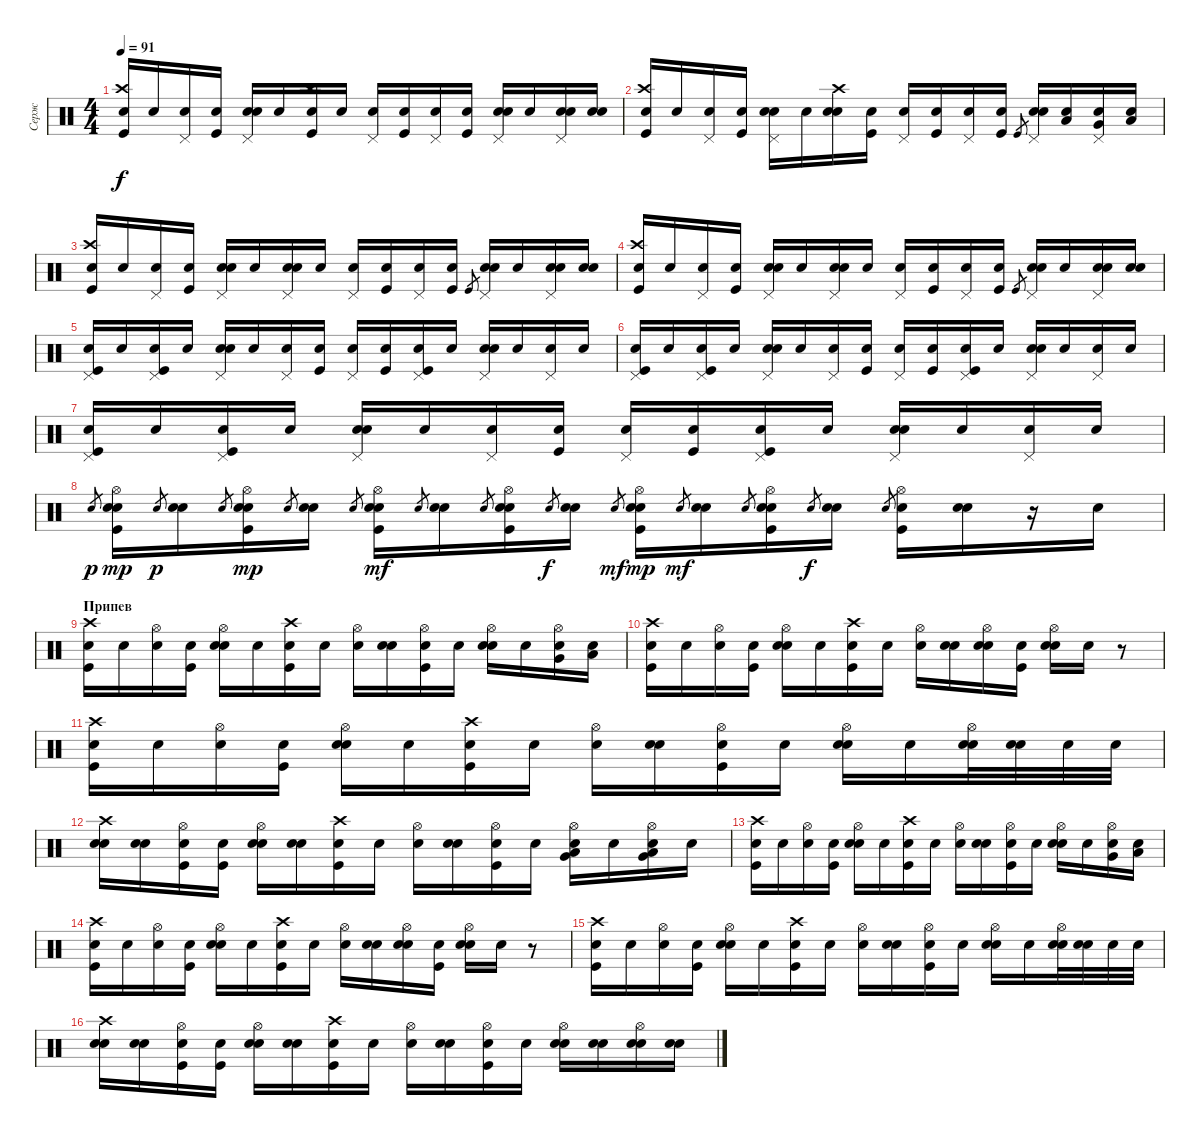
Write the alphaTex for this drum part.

\track ("Серж" "Серж") {instrument percussion}
\staff {score}
\articulation defaults
\ts (4 4)
\tempo 91
\clef neutral
\ks c
("Kick (hit)" "Crash high (hit)" "Snare (hit)"{x}).16{dy f} "Snare (hit)"{x}.16 ("Pedal Hi-Hat (hit)" "Snare (hit)"{x}).16 ("Kick (hit)" "Snare (hit)"{x}).16 ("Snare (hit) 2" "Pedal Hi-Hat (hit)" "Snare (hit)"{x}).16 "Snare (hit)"{x}.16 ("Kick (hit)" "Crash high (hit)" "Snare (hit)"{x}).16 "Snare (hit)"{x}.16 ("Pedal Hi-Hat (hit)" "Snare (hit)"{x}).16 ("Kick (hit)" "Snare (hit)"{x}).16 ("Pedal Hi-Hat (hit)" "Snare (hit)"{x}).16 ("Kick (hit)" "Snare (hit)"{x}).16 ("Snare (hit) 2" "Pedal Hi-Hat (hit)" "Snare (hit)"{x}).16 "Snare (hit)"{x}.16 ("Electric Snare (hit)" "Pedal Hi-Hat (hit)" "Snare (hit)"{x}).16 ("Electric Snare (hit)" "Snare (hit)"{x}).16 |
("Kick (hit)" "Crash high (hit)" "Snare (hit)"{x}).16 "Snare (hit)"{x}.16 ("Pedal Hi-Hat (hit)" "Snare (hit)"{x}).16 ("Kick (hit)" "Snare (hit)"{x}).16 ("Snare (hit) 2" "Pedal Hi-Hat (hit)" "Snare (hit)"{x}).16 "Snare (hit)"{x}.16 ("Snare (hit) 2" "Crash high (hit)" "Snare (hit)"{x}).16 ("Kick (hit)" "Snare (hit)"{x}).16 ("Pedal Hi-Hat (hit)" "Snare (hit)"{x}).16 ("Kick (hit)" "Snare (hit)"{x}).16 ("Pedal Hi-Hat (hit)" "Snare (hit)"{x}).16 ("Kick (hit)" "Snare (hit)"{x}).16 "Kick (hit)".8{gr} ("Snare (hit) 2" "Pedal Hi-Hat (hit)" "Snare (hit)"{x}).16 ("Low Tom (hit)" "Snare (hit)"{x}).16 ("Very Low Tom (hit)" "Pedal Hi-Hat (hit)" "Snare (hit)"{x}).16 ("Low Floor Tom (hit)" "Snare (hit)"{x}).16 |
("Kick (hit)" "Crash high (hit)" "Snare (hit)"{x}).16 "Snare (hit)"{x}.16 ("Pedal Hi-Hat (hit)" "Snare (hit)"{x}).16 ("Kick (hit)" "Snare (hit)"{x}).16 ("Snare (hit) 2" "Pedal Hi-Hat (hit)" "Snare (hit)"{x}).16 "Snare (hit)"{x}.16 ("Snare (hit) 2" "Pedal Hi-Hat (hit)" "Snare (hit)"{x}).16 "Snare (hit)"{x}.16 ("Pedal Hi-Hat (hit)" "Snare (hit)"{x}).16 ("Kick (hit)" "Snare (hit)"{x}).16 ("Pedal Hi-Hat (hit)" "Snare (hit)"{x}).16 ("Kick (hit)" "Snare (hit)"{x}).16 "Kick (hit)".8{gr} ("Snare (hit) 2" "Pedal Hi-Hat (hit)" "Snare (hit)"{x}).16 "Snare (hit)"{x}.16 ("Electric Snare (hit)" "Pedal Hi-Hat (hit)" "Snare (hit)"{x}).16 ("Electric Snare (hit)" "Snare (hit)"{x}).16 |
("Kick (hit)" "Crash high (hit)" "Snare (hit)"{x}).16 "Snare (hit)"{x}.16 ("Pedal Hi-Hat (hit)" "Snare (hit)"{x}).16 ("Kick (hit)" "Snare (hit)"{x}).16 ("Snare (hit) 2" "Pedal Hi-Hat (hit)" "Snare (hit)"{x}).16 "Snare (hit)"{x}.16 ("Snare (hit) 2" "Pedal Hi-Hat (hit)" "Snare (hit)"{x}).16 "Snare (hit)"{x}.16 ("Pedal Hi-Hat (hit)" "Snare (hit)"{x}).16 ("Kick (hit)" "Snare (hit)"{x}).16 ("Pedal Hi-Hat (hit)" "Snare (hit)"{x}).16 ("Kick (hit)" "Snare (hit)"{x}).16 "Kick (hit)".8{gr} ("Snare (hit) 2" "Pedal Hi-Hat (hit)" "Snare (hit)"{x}).16 "Snare (hit)"{x}.16 ("Electric Snare (hit)" "Pedal Hi-Hat (hit)" "Snare (hit)"{x}).16 ("Electric Snare (hit)" "Snare (hit)"{x}).16 |
("Kick (hit)" "Pedal Hi-Hat (hit)" "Snare (hit)"{x}).16 "Snare (hit)"{x}.16 ("Kick (hit)" "Pedal Hi-Hat (hit)" "Snare (hit)"{x}).16 "Snare (hit)"{x}.16 ("Snare (hit) 2" "Pedal Hi-Hat (hit)" "Snare (hit)"{x}).16 "Snare (hit)"{x}.16 ("Pedal Hi-Hat (hit)" "Snare (hit)"{x}).16 ("Kick (hit)" "Snare (hit)"{x}).16 ("Pedal Hi-Hat (hit)" "Snare (hit)"{x}).16 ("Kick (hit)" "Snare (hit)"{x}).16 ("Kick (hit)" "Pedal Hi-Hat (hit)" "Snare (hit)"{x}).16 "Snare (hit)"{x}.16 ("Snare (hit) 2" "Pedal Hi-Hat (hit)" "Snare (hit)"{x}).16 "Snare (hit)"{x}.16 ("Pedal Hi-Hat (hit)" "Snare (hit)"{x}).16 "Snare (hit)"{x}.16 |
("Kick (hit)" "Pedal Hi-Hat (hit)" "Snare (hit)"{x}).16 "Snare (hit)"{x}.16 ("Kick (hit)" "Pedal Hi-Hat (hit)" "Snare (hit)"{x}).16 "Snare (hit)"{x}.16 ("Snare (hit) 2" "Pedal Hi-Hat (hit)" "Snare (hit)"{x}).16 "Snare (hit)"{x}.16 ("Pedal Hi-Hat (hit)" "Snare (hit)"{x}).16 ("Kick (hit)" "Snare (hit)"{x}).16 ("Pedal Hi-Hat (hit)" "Snare (hit)"{x}).16 ("Kick (hit)" "Snare (hit)"{x}).16 ("Kick (hit)" "Pedal Hi-Hat (hit)" "Snare (hit)"{x}).16 "Snare (hit)"{x}.16 ("Snare (hit) 2" "Pedal Hi-Hat (hit)" "Snare (hit)"{x}).16 "Snare (hit)"{x}.16 ("Pedal Hi-Hat (hit)" "Snare (hit)"{x}).16 "Snare (hit)"{x}.16 |
("Kick (hit)" "Pedal Hi-Hat (hit)" "Snare (hit)"{x}).16 "Snare (hit)"{x}.16 ("Kick (hit)" "Pedal Hi-Hat (hit)" "Snare (hit)"{x}).16 "Snare (hit)"{x}.16 ("Snare (hit) 2" "Pedal Hi-Hat (hit)" "Snare (hit)"{x}).16 "Snare (hit)"{x}.16 ("Pedal Hi-Hat (hit)" "Snare (hit)"{x}).16 ("Kick (hit)" "Snare (hit)"{x}).16 ("Pedal Hi-Hat (hit)" "Snare (hit)"{x}).16 ("Kick (hit)" "Snare (hit)"{x}).16 ("Kick (hit)" "Pedal Hi-Hat (hit)" "Snare (hit)"{x}).16 "Snare (hit)"{x}.16 ("Snare (hit) 2" "Pedal Hi-Hat (hit)" "Snare (hit)"{x}).16 "Snare (hit)"{x}.16 ("Pedal Hi-Hat (hit)" "Snare (hit)"{x}).16 "Snare (hit)"{x}.16 |
"Electric Snare (hit)".8{gr dy p} ("Electric Snare (hit)" "Hi-Hat (open)" "Kick (hit)" "Snare (hit)"{x}).16{dy mp} "Electric Snare (hit)".8{gr dy p} ("Electric Snare (hit)" "Snare (hit)"{x}).16 "Electric Snare (hit)".8{gr} ("Electric Snare (hit)" "Hi-Hat (open)" "Kick (hit)" "Snare (hit)"{x}).16{dy mp} "Electric Snare (hit)".8{gr} ("Electric Snare (hit)" "Snare (hit)"{x}).16 "Electric Snare (hit)".8{gr} ("Electric Snare (hit)" "Hi-Hat (open)" "Kick (hit)" "Snare (hit)"{x}).16{dy mf} "Electric Snare (hit)".8{gr} ("Electric Snare (hit)" "Snare (hit)"{x}).16 "Electric Snare (hit)".8{gr} ("Electric Snare (hit)" "Hi-Hat (open)" "Kick (hit)" "Snare (hit)"{x}).16 "Electric Snare (hit)".8{gr dy f} ("Electric Snare (hit)" "Snare (hit)"{x}).16 "Electric Snare (hit)".8{gr dy mf} ("Electric Snare (hit)" "Hi-Hat (open)" "Kick (hit)" "Snare (hit)"{x}).16{dy mp} "Electric Snare (hit)".8{gr dy mf} ("Electric Snare (hit)" "Snare (hit)"{x}).16 "Electric Snare (hit)".8{gr} ("Electric Snare (hit)" "Hi-Hat (open)" "Kick (hit)" "Snare (hit)"{x}).16 "Electric Snare (hit)".8{gr dy f} ("Electric Snare (hit)" "Snare (hit)"{x}).16 "Electric Snare (hit)".8{gr} ("Electric Snare (hit)" "Hi-Hat (open)" "Kick (hit)").16 ("Electric Snare (hit)" "Snare (hit)"{x}).16 r.16 "Snare (hit)"{x}.16 |
\section ("" "Припев")
("Crash high (hit)" "Kick (hit)" "Snare (hit)"{x}).16 "Snare (hit)"{x}.16 ("Hi-Hat (open)" "Snare (hit)"{x}).16 ("Kick (hit)" "Snare (hit)"{x}).16 ("Snare (hit) 2" "Hi-Hat (open)" "Snare (hit)"{x}).16 "Snare (hit)"{x}.16 ("Crash high (hit)" "Kick (hit)" "Snare (hit)"{x}).16 "Snare (hit)"{x}.16 ("Hi-Hat (open)" "Snare (hit)"{x}).16 ("Snare (hit) 2" "Snare (hit)"{x}).16 ("Kick (hit)" "Hi-Hat (open)" "Snare (hit)"{x}).16 "Snare (hit)"{x}.16 ("Snare (hit) 2" "Hi-Hat (open)" "Snare (hit)"{x}).16 "Snare (hit)"{x}.16 ("Very Low Tom (hit)" "Hi-Hat (open)" "Snare (hit)"{x}).16 ("Low Floor Tom (hit)" "Snare (hit)"{x}).16 |
("Crash high (hit)" "Kick (hit)" "Snare (hit)"{x}).16 "Snare (hit)"{x}.16 ("Hi-Hat (open)" "Snare (hit)"{x}).16 ("Kick (hit)" "Snare (hit)"{x}).16 ("Snare (hit) 2" "Hi-Hat (open)" "Snare (hit)"{x}).16 "Snare (hit)"{x}.16 ("Crash high (hit)" "Kick (hit)" "Snare (hit)"{x}).16 "Snare (hit)"{x}.16 ("Hi-Hat (open)" "Snare (hit)"{x}).16 ("Snare (hit) 2" "Snare (hit)"{x}).16 ("Snare (hit) 2" "Hi-Hat (open)" "Snare (hit)"{x}).16 ("Kick (hit)" "Snare (hit)"{x}).16 ("Snare (hit) 2" "Hi-Hat (open)" "Snare (hit)"{x}).16 "Snare (hit)"{x}.16 r.8 |
("Crash high (hit)" "Kick (hit)" "Snare (hit)"{x}).16 "Snare (hit)"{x}.16 ("Hi-Hat (open)" "Snare (hit)"{x}).16 ("Kick (hit)" "Snare (hit)"{x}).16 ("Snare (hit) 2" "Hi-Hat (open)" "Snare (hit)"{x}).16 "Snare (hit)"{x}.16 ("Crash high (hit)" "Kick (hit)" "Snare (hit)"{x}).16 "Snare (hit)"{x}.16 ("Hi-Hat (open)" "Snare (hit)"{x}).16 ("Snare (hit) 2" "Snare (hit)"{x}).16 ("Kick (hit)" "Hi-Hat (open)" "Snare (hit)"{x}).16 "Snare (hit)"{x}.16 ("Snare (hit) 2" "Hi-Hat (open)" "Snare (hit)"{x}).16 "Snare (hit)"{x}.16 ("Electric Snare (hit)" "Hi-Hat (open)" "Snare (hit)"{x}).32 ("Electric Snare (hit)" "Snare (hit)"{x}).32 "Electric Snare (hit)".32 "Electric Snare (hit)".32 |
("Crash high (hit)" "Electric Snare (hit)" "Snare (hit)"{x}).16 ("Electric Snare (hit)" "Snare (hit)"{x}).16 ("Kick (hit)" "Hi-Hat (open)" "Snare (hit)"{x}).16 ("Kick (hit)" "Snare (hit)"{x}).16 ("Snare (hit) 2" "Hi-Hat (open)" "Snare (hit)"{x}).16 ("Electric Snare (hit)" "Snare (hit)"{x}).16 ("Crash high (hit)" "Kick (hit)" "Snare (hit)"{x}).16 "Snare (hit)"{x}.16 ("Hi-Hat (open)" "Snare (hit)"{x}).16 ("Snare (hit) 2" "Snare (hit)"{x}).16 ("Kick (hit)" "Hi-Hat (open)" "Snare (hit)"{x}).16 "Snare (hit)"{x}.16 ("Very Low Tom (hit)" "Low Tom (hit)" "Hi-Hat (open)" "Snare (hit)"{x}).16 "Snare (hit)"{x}.16 ("Low Floor Tom (hit)" "Very Low Tom (hit)" "Hi-Hat (open)" "Snare (hit)"{x}).16 "Snare (hit)"{x}.16 |
("Crash high (hit)" "Kick (hit)" "Snare (hit)"{x}).16 "Snare (hit)"{x}.16 ("Hi-Hat (open)" "Snare (hit)"{x}).16 ("Kick (hit)" "Snare (hit)"{x}).16 ("Snare (hit) 2" "Hi-Hat (open)" "Snare (hit)"{x}).16 "Snare (hit)"{x}.16 ("Crash high (hit)" "Kick (hit)" "Snare (hit)"{x}).16 "Snare (hit)"{x}.16 ("Hi-Hat (open)" "Snare (hit)"{x}).16 ("Snare (hit) 2" "Snare (hit)"{x}).16 ("Kick (hit)" "Hi-Hat (open)" "Snare (hit)"{x}).16 "Snare (hit)"{x}.16 ("Snare (hit) 2" "Hi-Hat (open)" "Snare (hit)"{x}).16 "Snare (hit)"{x}.16 ("Very Low Tom (hit)" "Hi-Hat (open)" "Snare (hit)"{x}).16 ("Low Floor Tom (hit)" "Snare (hit)"{x}).16 |
("Crash high (hit)" "Kick (hit)" "Snare (hit)"{x}).16 "Snare (hit)"{x}.16 ("Hi-Hat (open)" "Snare (hit)"{x}).16 ("Kick (hit)" "Snare (hit)"{x}).16 ("Snare (hit) 2" "Hi-Hat (open)" "Snare (hit)"{x}).16 "Snare (hit)"{x}.16 ("Crash high (hit)" "Kick (hit)" "Snare (hit)"{x}).16 "Snare (hit)"{x}.16 ("Hi-Hat (open)" "Snare (hit)"{x}).16 ("Snare (hit) 2" "Snare (hit)"{x}).16 ("Snare (hit) 2" "Hi-Hat (open)" "Snare (hit)"{x}).16 ("Kick (hit)" "Snare (hit)"{x}).16 ("Snare (hit) 2" "Hi-Hat (open)" "Snare (hit)"{x}).16 "Snare (hit)"{x}.16 r.8 |
("Crash high (hit)" "Kick (hit)" "Snare (hit)"{x}).16 "Snare (hit)"{x}.16 ("Hi-Hat (open)" "Snare (hit)"{x}).16 ("Kick (hit)" "Snare (hit)"{x}).16 ("Snare (hit) 2" "Hi-Hat (open)" "Snare (hit)"{x}).16 "Snare (hit)"{x}.16 ("Crash high (hit)" "Kick (hit)" "Snare (hit)"{x}).16 "Snare (hit)"{x}.16 ("Hi-Hat (open)" "Snare (hit)"{x}).16 ("Snare (hit) 2" "Snare (hit)"{x}).16 ("Kick (hit)" "Hi-Hat (open)" "Snare (hit)"{x}).16 "Snare (hit)"{x}.16 ("Snare (hit) 2" "Hi-Hat (open)" "Snare (hit)"{x}).16 "Snare (hit)"{x}.16 ("Electric Snare (hit)" "Hi-Hat (open)" "Snare (hit)"{x}).32 ("Electric Snare (hit)" "Snare (hit)"{x}).32 "Electric Snare (hit)".32 "Electric Snare (hit)".32 |
("Crash high (hit)" "Electric Snare (hit)" "Snare (hit)"{x}).16 ("Electric Snare (hit)" "Snare (hit)"{x}).16 ("Kick (hit)" "Hi-Hat (open)" "Snare (hit)"{x}).16 ("Kick (hit)" "Snare (hit)"{x}).16 ("Snare (hit) 2" "Hi-Hat (open)" "Snare (hit)"{x}).16 ("Electric Snare (hit)" "Snare (hit)"{x}).16 ("Crash high (hit)" "Kick (hit)" "Snare (hit)"{x}).16 "Snare (hit)"{x}.16 ("Hi-Hat (open)" "Snare (hit)"{x}).16 ("Snare (hit) 2" "Snare (hit)"{x}).16 ("Kick (hit)" "Hi-Hat (open)" "Snare (hit)"{x}).16 "Snare (hit)"{x}.16 ("Snare (hit) 2" "Hi-Hat (open)" "Snare (hit)"{x}).16 ("Snare (hit) 2" "Snare (hit)"{x}).16 ("Snare (hit) 2" "Hi-Hat (open)" "Snare (hit)"{x}).16 ("Snare (hit) 2" "Snare (hit)"{x}).16
